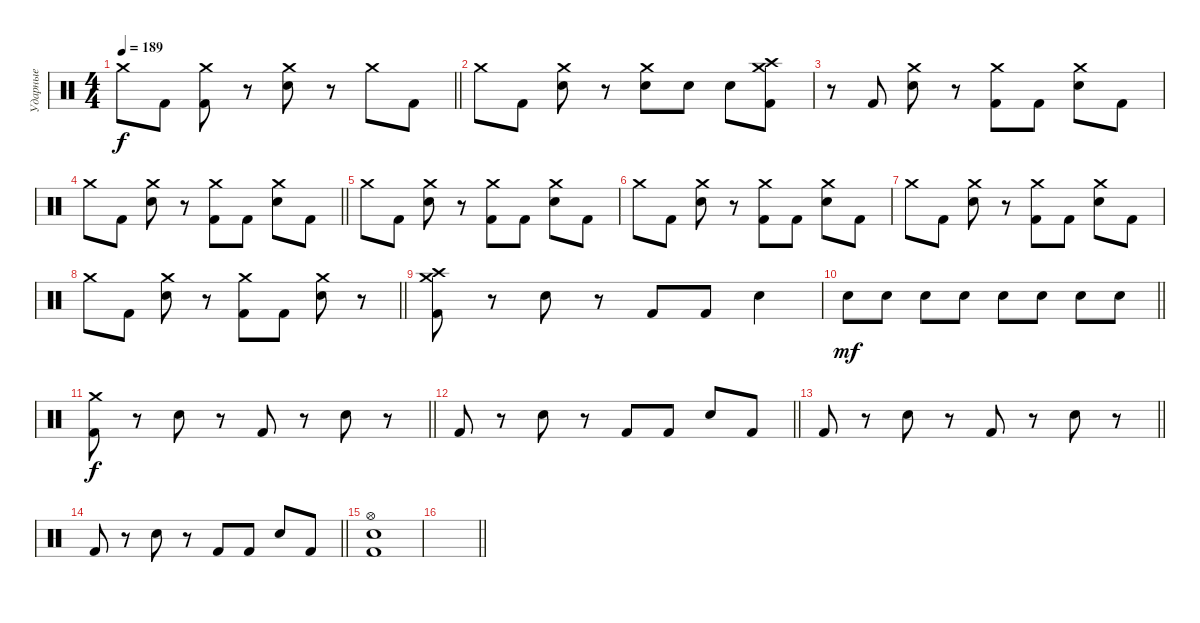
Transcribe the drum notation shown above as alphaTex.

\track ("Ударные" "Ударные") {instrument percussion}
\staff {score}
\articulation defaults
\ts (4 4)
\tempo 189
\clef neutral
\barLineRight lightlight
\ks c "Crash medium (hit)".8{dy f} "Kick (hit) 2".8
("Crash medium (hit)" "Kick (hit) 2").8 r.8 ("Crash medium (hit)" "Electric Snare (hit)").8 r.8 "Crash medium (hit)".8 "Kick (hit) 2".8 |
"Crash medium (hit)".8 "Kick (hit) 2".8 ("Crash medium (hit)" "Electric Snare (hit)").8 r.8 ("Crash medium (hit)" "Electric Snare (hit)").8 "Electric Snare (hit)".8 "Electric Snare (hit)".8 ("Crash medium (hit)" "Crash high (hit)" "Kick (hit) 2").8 |
r.8 "Kick (hit) 2".8 ("Crash medium (hit)" "Electric Snare (hit)").8 r.8 ("Crash medium (hit)" "Kick (hit) 2").8 "Kick (hit) 2".8 ("Crash medium (hit)" "Electric Snare (hit)").8 "Kick (hit) 2".8 |
\barLineRight lightlight "Crash medium (hit)".8 "Kick (hit) 2".8
("Crash medium (hit)" "Electric Snare (hit)").8 r.8 ("Crash medium (hit)" "Kick (hit) 2").8 "Kick (hit) 2".8 ("Crash medium (hit)" "Electric Snare (hit)").8 "Kick (hit) 2".8 |
"Crash medium (hit)".8 "Kick (hit) 2".8 ("Crash medium (hit)" "Electric Snare (hit)").8 r.8 ("Crash medium (hit)" "Kick (hit) 2").8 "Kick (hit) 2".8 ("Crash medium (hit)" "Electric Snare (hit)").8 "Kick (hit) 2".8 |
"Crash medium (hit)".8 "Kick (hit) 2".8 ("Crash medium (hit)" "Electric Snare (hit)").8 r.8 ("Crash medium (hit)" "Kick (hit) 2").8 "Kick (hit) 2".8 ("Crash medium (hit)" "Electric Snare (hit)").8 "Kick (hit) 2".8 |
"Crash medium (hit)".8 "Kick (hit) 2".8 ("Crash medium (hit)" "Electric Snare (hit)").8 r.8 ("Crash medium (hit)" "Kick (hit) 2").8 "Kick (hit) 2".8 ("Crash medium (hit)" "Electric Snare (hit)").8 "Kick (hit) 2".8 |
\barLineRight lightlight "Crash medium (hit)".8 "Kick (hit) 2".8
("Crash medium (hit)" "Electric Snare (hit)").8 r.8 ("Crash medium (hit)" "Kick (hit) 2").8 "Kick (hit) 2".8 ("Crash medium (hit)" "Electric Snare (hit)").8 r.8 |
("Crash medium (hit)" "Crash high (hit)" "Kick (hit) 2").8 r.8 "Electric Snare (hit)".8 r.8 "Kick (hit) 2".8 "Kick (hit) 2".8 "Electric Snare (hit)".4 |
\barLineRight lightlight "Electric Snare (hit)".8{dy mf} "Electric Snare (hit)".8 "Electric Snare (hit)".8 "Electric Snare (hit)".8 "Electric Snare (hit)".8 "Electric Snare (hit)".8 "Electric Snare (hit)".8 "Electric Snare (hit)".8
|
\barLineRight lightlight
("Crash medium (hit)" "Kick (hit) 2").8{dy f} r.8 "Electric Snare (hit)".8 r.8 "Kick (hit) 2".8 r.8 "Electric Snare (hit)".8 r.8 |
\barLineRight lightlight "Kick (hit) 2".8
r.8 "Electric Snare (hit)".8 r.8 "Kick (hit) 2".8 "Kick (hit) 2".8 "Electric Snare (hit)".8 "Kick (hit) 2".8 |
\barLineRight lightlight "Kick (hit) 2".8
r.8 "Electric Snare (hit)".8 r.8 "Kick (hit) 2".8 r.8 "Electric Snare (hit)".8 r.8 |
\barLineRight lightlight "Kick (hit) 2".8
r.8 "Electric Snare (hit)".8 r.8 "Kick (hit) 2".8 "Kick (hit) 2".8 "Electric Snare (hit)".8 "Kick (hit) 2".8 |
("Hi-Hat (open)" "Electric Snare (hit)" "Kick (hit) 2").1 |
\barLineRight lightlight
